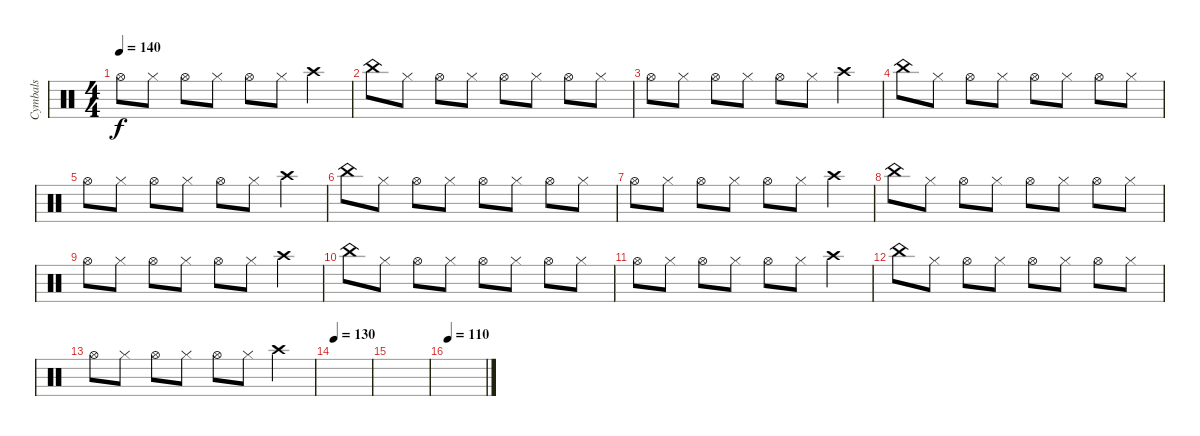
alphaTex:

\track ("Cymbals" "Cymbals") {instrument percussion}
\staff {score}
\articulation defaults
\ts (4 4)
\tempo 140
\clef neutral
\ks c "Hi-Hat (open)".8{dy f} "Hi-Hat (closed)".8 "Hi-Hat (open)".8 "Hi-Hat (closed)".8 "Hi-Hat (open)".8 "Hi-Hat (closed)".8 "Crash high (hit)".4
|
"China (hit)".8 "Hi-Hat (closed)".8 "Hi-Hat (open)".8 "Hi-Hat (closed)".8 "Hi-Hat (open)".8 "Hi-Hat (closed)".8 "Hi-Hat (open)".8 "Hi-Hat (closed)".8 |
"Hi-Hat (open)".8 "Hi-Hat (closed)".8 "Hi-Hat (open)".8 "Hi-Hat (closed)".8 "Hi-Hat (open)".8 "Hi-Hat (closed)".8 "Crash high (hit)".4 |
"China (hit)".8 "Hi-Hat (closed)".8 "Hi-Hat (open)".8 "Hi-Hat (closed)".8 "Hi-Hat (open)".8 "Hi-Hat (closed)".8 "Hi-Hat (open)".8 "Hi-Hat (closed)".8 |
"Hi-Hat (open)".8 "Hi-Hat (closed)".8 "Hi-Hat (open)".8 "Hi-Hat (closed)".8 "Hi-Hat (open)".8 "Hi-Hat (closed)".8 "Crash high (hit)".4 |
"China (hit)".8 "Hi-Hat (closed)".8 "Hi-Hat (open)".8 "Hi-Hat (closed)".8 "Hi-Hat (open)".8 "Hi-Hat (closed)".8 "Hi-Hat (open)".8 "Hi-Hat (closed)".8 |
"Hi-Hat (open)".8 "Hi-Hat (closed)".8 "Hi-Hat (open)".8 "Hi-Hat (closed)".8 "Hi-Hat (open)".8 "Hi-Hat (closed)".8 "Crash high (hit)".4 |
"China (hit)".8 "Hi-Hat (closed)".8 "Hi-Hat (open)".8 "Hi-Hat (closed)".8 "Hi-Hat (open)".8 "Hi-Hat (closed)".8 "Hi-Hat (open)".8 "Hi-Hat (closed)".8 |
"Hi-Hat (open)".8 "Hi-Hat (closed)".8 "Hi-Hat (open)".8 "Hi-Hat (closed)".8 "Hi-Hat (open)".8 "Hi-Hat (closed)".8 "Crash high (hit)".4 |
"China (hit)".8 "Hi-Hat (closed)".8 "Hi-Hat (open)".8 "Hi-Hat (closed)".8 "Hi-Hat (open)".8 "Hi-Hat (closed)".8 "Hi-Hat (open)".8 "Hi-Hat (closed)".8 |
"Hi-Hat (open)".8 "Hi-Hat (closed)".8 "Hi-Hat (open)".8 "Hi-Hat (closed)".8 "Hi-Hat (open)".8 "Hi-Hat (closed)".8 "Crash high (hit)".4 |
"China (hit)".8 "Hi-Hat (closed)".8 "Hi-Hat (open)".8 "Hi-Hat (closed)".8 "Hi-Hat (open)".8 "Hi-Hat (closed)".8 "Hi-Hat (open)".8 "Hi-Hat (closed)".8 |
"Hi-Hat (open)".8 "Hi-Hat (closed)".8 "Hi-Hat (open)".8 "Hi-Hat (closed)".8 "Hi-Hat (open)".8 "Hi-Hat (closed)".8 "Crash high (hit)".4 |
\tempo 130
|
|
\tempo 110
